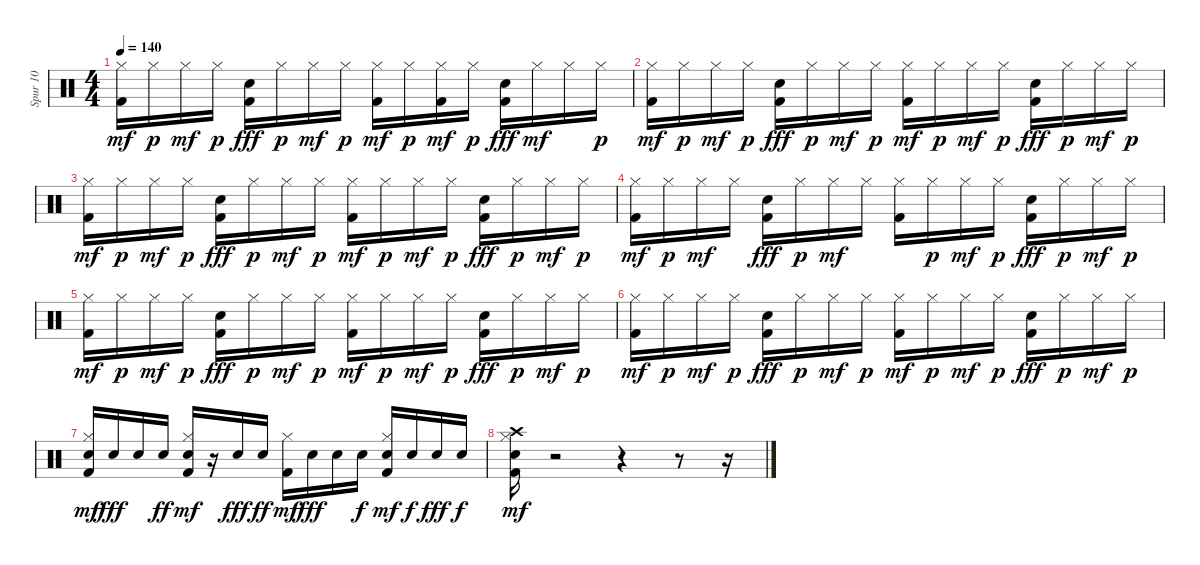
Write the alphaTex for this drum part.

\track ("Spur 10" "Spur 10") {instrument percussion}
\staff {score}
\articulation defaults
\ts (4 4)
\tempo 140
\clef neutral
\ks c
("Kick (hit) 2" "Hi-Hat (closed)").16{dy mf} "Hi-Hat (closed)".16{dy p} "Hi-Hat (closed)".16{dy mf} "Hi-Hat (closed)".16{dy p} ("Kick (hit) 2" "Snare (hit) 2").16{dy fff} "Hi-Hat (closed)".16{dy p} "Hi-Hat (closed)".16{dy mf} "Hi-Hat (closed)".16{dy p} ("Kick (hit) 2" "Hi-Hat (closed)").16{dy mf} "Hi-Hat (closed)".16{dy p} ("Kick (hit) 2" "Hi-Hat (closed)").16{dy mf} "Hi-Hat (closed)".16{dy p} ("Kick (hit) 2" "Snare (hit) 2").16{dy fff} "Hi-Hat (closed)".16{dy mf} "Hi-Hat (closed)".16 "Hi-Hat (closed)".16{dy p} |
("Kick (hit) 2" "Hi-Hat (closed)").16{dy mf} "Hi-Hat (closed)".16{dy p} "Hi-Hat (closed)".16{dy mf} "Hi-Hat (closed)".16{dy p} ("Kick (hit) 2" "Snare (hit) 2").16{dy fff} "Hi-Hat (closed)".16{dy p} "Hi-Hat (closed)".16{dy mf} "Hi-Hat (closed)".16{dy p} ("Kick (hit) 2" "Hi-Hat (closed)").16{dy mf} "Hi-Hat (closed)".16{dy p} "Hi-Hat (closed)".16{dy mf} "Hi-Hat (closed)".16{dy p} ("Kick (hit) 2" "Snare (hit) 2").16{dy fff} "Hi-Hat (closed)".16{dy p} "Hi-Hat (closed)".16{dy mf} "Hi-Hat (closed)".16{dy p} |
("Kick (hit) 2" "Hi-Hat (closed)").16{dy mf} "Hi-Hat (closed)".16{dy p} "Hi-Hat (closed)".16{dy mf} "Hi-Hat (closed)".16{dy p} ("Kick (hit) 2" "Snare (hit) 2").16{dy fff} "Hi-Hat (closed)".16{dy p} "Hi-Hat (closed)".16{dy mf} "Hi-Hat (closed)".16{dy p} ("Kick (hit) 2" "Hi-Hat (closed)").16{dy mf} "Hi-Hat (closed)".16{dy p} "Hi-Hat (closed)".16{dy mf} "Hi-Hat (closed)".16{dy p} ("Kick (hit) 2" "Snare (hit) 2").16{dy fff} "Hi-Hat (closed)".16{dy p} "Hi-Hat (closed)".16{dy mf} "Hi-Hat (closed)".16{dy p} |
("Kick (hit) 2" "Hi-Hat (closed)").16{dy mf} "Hi-Hat (closed)".16{dy p} "Hi-Hat (closed)".16{dy mf} "Hi-Hat (closed)".16 ("Kick (hit) 2" "Snare (hit) 2").16{dy fff} "Hi-Hat (closed)".16{dy p} "Hi-Hat (closed)".16{dy mf} "Hi-Hat (closed)".16 ("Kick (hit) 2" "Hi-Hat (closed)").16 "Hi-Hat (closed)".16{dy p} "Hi-Hat (closed)".16{dy mf} "Hi-Hat (closed)".16{dy p} ("Kick (hit) 2" "Snare (hit) 2").16{dy fff} "Hi-Hat (closed)".16{dy p} "Hi-Hat (closed)".16{dy mf} "Hi-Hat (closed)".16{dy p} |
("Kick (hit) 2" "Hi-Hat (closed)").16{dy mf} "Hi-Hat (closed)".16{dy p} "Hi-Hat (closed)".16{dy mf} "Hi-Hat (closed)".16{dy p} ("Kick (hit) 2" "Snare (hit) 2").16{dy fff} "Hi-Hat (closed)".16{dy p} "Hi-Hat (closed)".16{dy mf} "Hi-Hat (closed)".16{dy p} ("Kick (hit) 2" "Hi-Hat (closed)").16{dy mf} "Hi-Hat (closed)".16{dy p} "Hi-Hat (closed)".16{dy mf} "Hi-Hat (closed)".16{dy p} ("Kick (hit) 2" "Snare (hit) 2").16{dy fff} "Hi-Hat (closed)".16{dy p} "Hi-Hat (closed)".16{dy mf} "Hi-Hat (closed)".16{dy p} |
("Kick (hit) 2" "Hi-Hat (closed)").16{dy mf} "Hi-Hat (closed)".16{dy p} "Hi-Hat (closed)".16{dy mf} "Hi-Hat (closed)".16{dy p} ("Kick (hit) 2" "Snare (hit) 2").16{dy fff} "Hi-Hat (closed)".16{dy p} "Hi-Hat (closed)".16{dy mf} "Hi-Hat (closed)".16{dy p} ("Kick (hit) 2" "Hi-Hat (closed)").16{dy mf} "Hi-Hat (closed)".16{dy p} "Hi-Hat (closed)".16{dy mf} "Hi-Hat (closed)".16{dy p} ("Kick (hit) 2" "Snare (hit) 2").16{dy fff} "Hi-Hat (closed)".16{dy p} "Hi-Hat (closed)".16{dy mf} "Hi-Hat (closed)".16{dy p} |
("Kick (hit) 2" "Snare (hit) 2" "Hi-Hat (closed)").16{dy mf} "Snare (hit) 2".16{dy fff} "Snare (hit) 2".16 "Snare (hit) 2".16{dy ff} ("Kick (hit) 2" "Snare (hit) 2" "Hi-Hat (closed)").16{dy mf} r.16 "Snare (hit) 2".16{dy fff} "Snare (hit) 2".16{dy ff} ("Kick (hit) 2" "Hi-Hat (closed)").16{dy mf} "Snare (hit) 2".16{dy fff} "Snare (hit) 2".16 "Snare (hit) 2".16{dy f} ("Kick (hit) 2" "Snare (hit) 2" "Hi-Hat (closed)").16{dy mf} "Snare (hit) 2".16{dy f} "Snare (hit) 2".16{dy fff} "Snare (hit) 2".16{dy f} |
("Crash high (hit)" "Kick (hit) 2" "Snare (hit) 2" "Hi-Hat (closed)").16{dy mf} r.2 r.4 r.8 r.16
